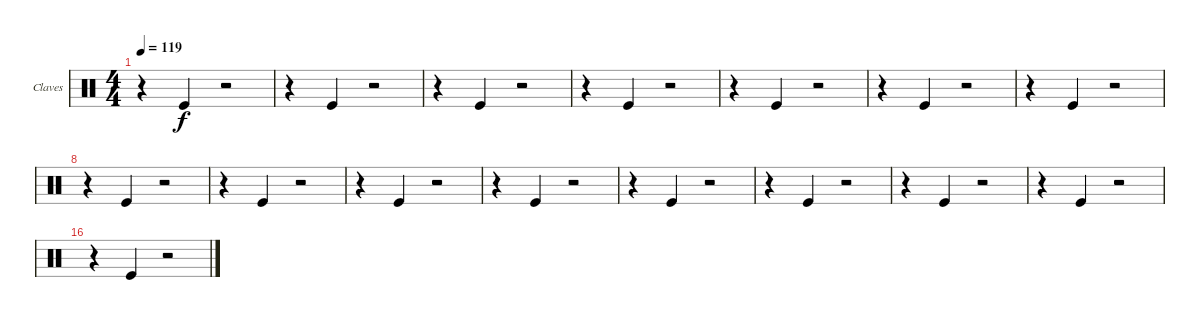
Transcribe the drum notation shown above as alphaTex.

\defaultSystemsLayout 4
\bracketExtendMode groupsimilarinstruments
\useSystemSignSeparator
\multiBarRest
\multiTrackTrackNamePolicy allsystems
\firstSystemTrackNameMode fullname
\firstSystemTrackNameOrientation horizontal
\otherSystemsTrackNameOrientation horizontal
\defaultBarNumberDisplay FirstOfSystem
\track ("Claves" "Claves") {multiBarRest instrument percussion}
\staff {score}
\articulation defaults
\ts (4 4)
\tempo 119
\clef neutral
\ks aminor
r.4{dy f} "Kick (hit)".4 r.2 |
r.4 "Kick (hit)".4 r.2 |
r.4 "Kick (hit)".4 r.2 |
r.4 "Kick (hit)".4 r.2 |
r.4 "Kick (hit)".4 r.2 |
r.4 "Kick (hit)".4 r.2 |
r.4 "Kick (hit)".4 r.2 |
r.4 "Kick (hit)".4 r.2 |
r.4 "Kick (hit)".4 r.2 |
r.4 "Kick (hit)".4 r.2 |
r.4 "Kick (hit)".4 r.2 |
r.4 "Kick (hit)".4 r.2 |
r.4 "Kick (hit)".4 r.2 |
r.4 "Kick (hit)".4 r.2 |
r.4 "Kick (hit)".4 r.2 |
r.4 "Kick (hit)".4 r.2
